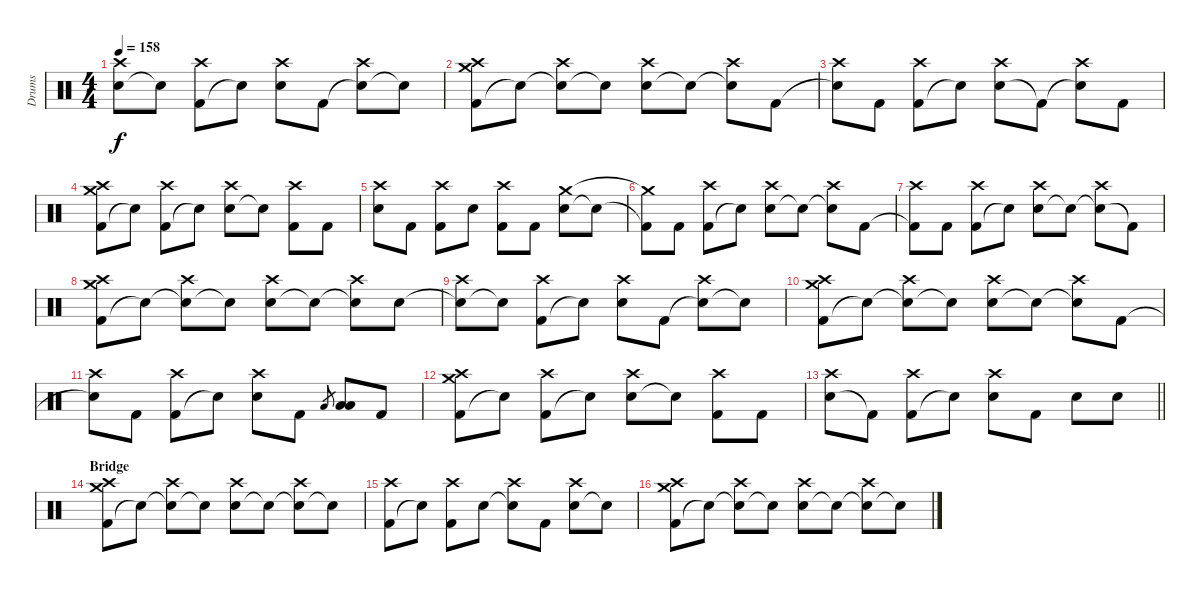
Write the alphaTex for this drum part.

\track ("Drums" "Drums") {instrument percussion}
\staff {score}
\articulation defaults
\ts (4 4)
\tempo 158
\clef neutral
\ks c
("Snare (hit)"{t} "Crash high (hit)").8{dy f} "Snare (hit)"{t}.8 ("Kick (hit) 2" "Crash high (hit)").8 "Snare (hit)"{t}.8 ("Electric Snare (hit)" "Crash high (hit)").8 "Kick (hit) 2".8 ("Snare (hit)"{t} "Crash high (hit)").8 "Snare (hit)"{t}.8 |
("Kick (hit) 2" "Crash medium (hit)" "Crash high (hit)").8 "Snare (hit)"{t}.8 ("Snare (hit)"{t} "Crash high (hit)").8 "Snare (hit)"{t}.8 ("Electric Snare (hit)" "Crash high (hit)").8 "Snare (hit)"{t}.8 ("Snare (hit)"{t} "Crash high (hit)").8 "Kick (hit) 2".8 |
("Snare (hit)"{t} "Crash high (hit)").8 "Kick (hit) 2".8 ("Kick (hit) 2" "Crash high (hit)").8 "Snare (hit)"{t}.8 ("Electric Snare (hit)" "Crash high (hit)").8 "Kick (hit) 2"{t}.8 ("Snare (hit)"{t} "Crash high (hit)").8 "Kick (hit) 2".8 |
("Kick (hit) 2" "Crash medium (hit)" "Crash high (hit)").8 "Snare (hit)"{t}.8 ("Kick (hit) 2" "Crash high (hit)").8 "Snare (hit)"{t}.8 ("Electric Snare (hit)" "Crash high (hit)").8 "Snare (hit)"{t}.8 ("Kick (hit) 2" "Crash high (hit)").8 "Kick (hit) 2".8 |
("Electric Snare (hit)" "Crash high (hit)").8 "Kick (hit) 2".8 ("Kick (hit) 2" "Crash high (hit)").8 "Electric Snare (hit)".8 ("Kick (hit) 2" "Crash high (hit)").8 "Kick (hit) 2".8 ("Electric Snare (hit)" "Crash medium (hit)").8 "Snare (hit)"{t}.8 |
("Kick (hit) 2"{t} "Crash medium (hit)"{t}).8 "Kick (hit) 2".8 ("Kick (hit) 2" "Crash high (hit)").8 "Snare (hit)"{t}.8 ("Electric Snare (hit)" "Crash high (hit)").8 "Snare (hit)"{t}.8 ("Snare (hit)"{t} "Crash high (hit)").8 "Kick (hit) 2".8 |
("Kick (hit) 2"{t} "Crash high (hit)").8 "Kick (hit) 2".8 ("Kick (hit) 2" "Crash high (hit)").8 "Snare (hit)"{t}.8 ("Electric Snare (hit)" "Crash high (hit)").8 "Snare (hit)"{t}.8 ("Snare (hit)"{t} "Crash high (hit)").8 "Kick (hit) 2"{t}.8 |
("Kick (hit) 2" "Crash medium (hit)" "Crash high (hit)").8 "Snare (hit)"{t}.8 ("Snare (hit)"{t} "Crash high (hit)").8 "Snare (hit)"{t}.8 ("Electric Snare (hit)" "Crash high (hit)").8 "Snare (hit)"{t}.8 ("Snare (hit)"{t} "Crash high (hit)").8 "Electric Snare (hit)".8 |
("Snare (hit)"{t} "Crash high (hit)").8 "Snare (hit)"{t}.8 ("Kick (hit) 2" "Crash high (hit)").8 "Snare (hit)"{t}.8 ("Electric Snare (hit)" "Crash high (hit)").8 "Kick (hit) 2".8 ("Snare (hit)"{t} "Crash high (hit)").8 "Snare (hit)"{t}.8 |
("Kick (hit) 2" "Crash medium (hit)" "Crash high (hit)").8 "Snare (hit)"{t}.8 ("Snare (hit)"{t} "Crash high (hit)").8 "Snare (hit)"{t}.8 ("Electric Snare (hit)" "Crash high (hit)").8 "Snare (hit)"{t}.8 ("Snare (hit)"{t} "Crash high (hit)").8 "Kick (hit) 2".8 |
("Snare (hit)"{t} "Crash high (hit)").8 "Kick (hit) 2".8 ("Kick (hit) 2" "Crash high (hit)").8 "Snare (hit)"{t}.8 ("Electric Snare (hit)" "Crash high (hit)").8 "Kick (hit) 2".8 "Low Tom (hit)".8{gr} ("Low Tom (hit)" "Low Floor Tom (hit)").8 "Kick (hit) 2".8 |
("Kick (hit) 2" "Crash medium (hit)" "Crash high (hit)").8 "Snare (hit)"{t}.8 ("Kick (hit) 2" "Crash high (hit)").8 "Snare (hit)"{t}.8 ("Electric Snare (hit)" "Crash high (hit)").8 "Snare (hit)"{t}.8 ("Kick (hit) 2" "Crash high (hit)").8 "Kick (hit) 2".8 |
\barLineRight lightlight
("Electric Snare (hit)" "Crash high (hit)").8 "Kick (hit) 2"{t}.8 ("Kick (hit) 2" "Crash high (hit)").8 "Electric Snare (hit)"{t}.8 ("Electric Snare (hit)" "Crash high (hit)").8 "Kick (hit) 2".8 "Electric Snare (hit)".8 "Electric Snare (hit)".8 |
\section ("" "Bridge")
("Kick (hit) 2" "Crash medium (hit)" "Crash high (hit)").8 "Snare (hit)"{t}.8 ("Snare (hit)"{t} "Crash high (hit)").8 "Snare (hit)"{t}.8 ("Electric Snare (hit)" "Crash high (hit)").8 "Snare (hit)"{t}.8 ("Snare (hit)"{t} "Crash high (hit)").8 "Snare (hit)"{t}.8 |
("Kick (hit) 2" "Crash high (hit)").8 "Snare (hit)"{t}.8 ("Kick (hit) 2" "Crash high (hit)").8 "Electric Snare (hit)".8 ("Snare (hit)"{t} "Crash high (hit)").8 "Kick (hit) 2".8 ("Electric Snare (hit)" "Crash high (hit)").8 "Snare (hit)"{t}.8 |
("Kick (hit) 2" "Crash medium (hit)" "Crash high (hit)").8 "Snare (hit)"{t}.8 ("Snare (hit)"{t} "Crash high (hit)").8 "Snare (hit)"{t}.8 ("Electric Snare (hit)" "Crash high (hit)").8 "Snare (hit)"{t}.8 ("Snare (hit)"{t} "Crash high (hit)").8 "Snare (hit)"{t}.8
